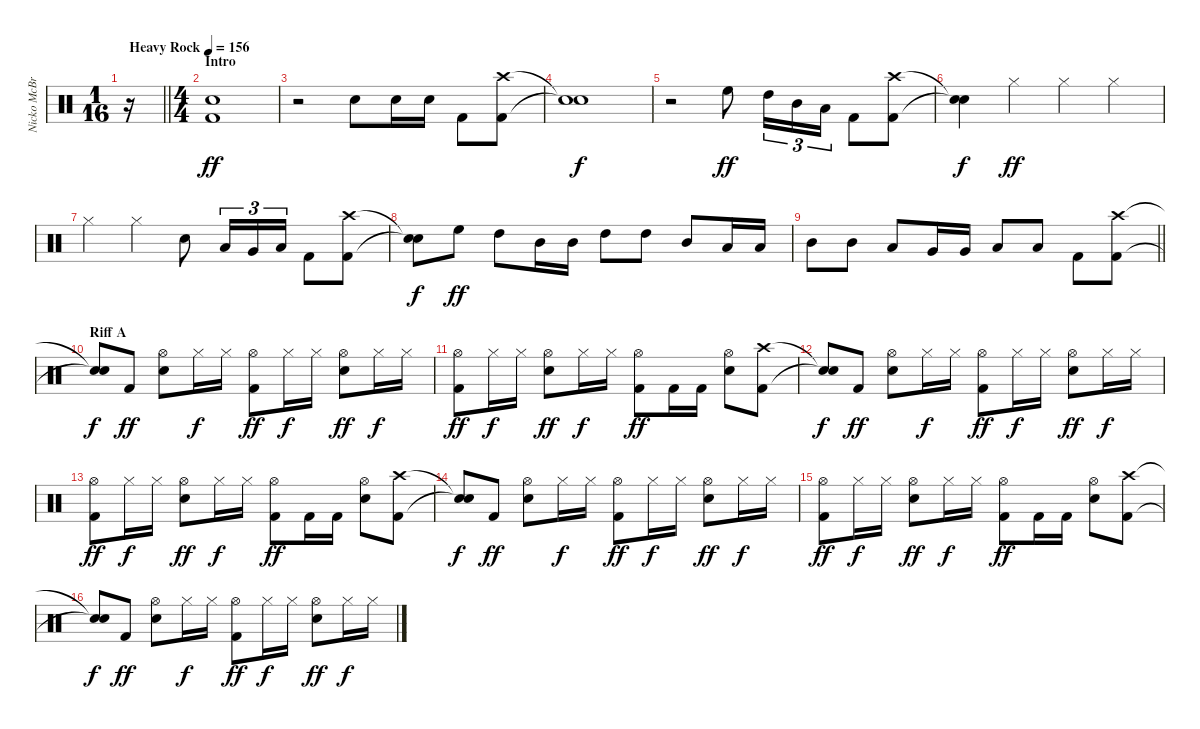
\track ("Nicko McBrain" "Nicko McBr") {instrument percussion}
\staff {score}
\articulation defaults
\ts (1 16)
\tempo (156 "Heavy Rock")
\clef neutral
\barLineRight lightlight
\ks c
r.16{dy ff} |
\ts (4 4)
\section ("" "Intro")
("Kick (hit) 2" "Snare (hit) 2").1 |
r.2 "Snare (hit) 2".8 "Snare (hit) 2".16 "Snare (hit) 2".16 "Kick (hit) 2".8 ("Kick (hit) 2" "Crash high (hit)").8 |
("Snare (hit)"{t} "Snare (hit)"{t}).1{dy f} |
r.2 "High Floor Tom (hit)".8{dy ff} "High Tom (hit)".16{tu (3 2)} "Mid Tom (hit)".16{tu (3 2)} "Low Tom (hit)".16{tu (3 2)} "Kick (hit) 2".8 ("Kick (hit) 2" "Crash high (hit)").8 |
("Snare (hit)"{t} "Snare (hit)"{t}).4{dy f} "Hi-Hat (closed)".4{dy ff} "Hi-Hat (closed)".4 "Hi-Hat (closed)".4 |
"Hi-Hat (closed)".4 "Hi-Hat (closed)".4 "Snare (hit) 2".8 "Low Tom (hit)".16{tu (3 2)} "Very Low Tom (hit)".16{tu (3 2)} "Low Floor Tom (hit)".16{tu (3 2)} "Kick (hit) 2".8 ("Kick (hit) 2" "Crash high (hit)").8 |
("Snare (hit)"{t} "Snare (hit)"{t}).8{dy f} "High Floor Tom (hit)".8{dy ff} "High Tom (hit)".8 "Mid Tom (hit)".16 "Mid Tom (hit)".16 "High Tom (hit)".8 "High Tom (hit)".8 "Mid Tom (hit)".8 "Low Tom (hit)".16 "Low Tom (hit)".16 |
\barLineRight lightlight "Mid Tom (hit)".8 "Mid Tom (hit)".8 "Low Tom (hit)".8 "Very Low Tom (hit)".16 "Very Low Tom (hit)".16 "Low Tom (hit)".8 "Low Tom (hit)".8 "Kick (hit) 2".8
("Kick (hit) 2" "Crash high (hit)").8 |
\section ("" "Riff A")
("Snare (hit)"{t} "Snare (hit)"{t}).8{dy f} "Kick (hit) 2".8{dy ff} ("Snare (hit) 2" "Hi-Hat (open)").8 "Hi-Hat (closed)".16{dy f} "Hi-Hat (closed)".16 ("Kick (hit) 2" "Hi-Hat (open)").8{dy ff} "Hi-Hat (closed)".16{dy f} "Hi-Hat (closed)".16 ("Snare (hit) 2" "Hi-Hat (open)").8{dy ff} "Hi-Hat (closed)".16{dy f} "Hi-Hat (closed)".16 |
("Kick (hit) 2" "Hi-Hat (open)").8{dy ff} "Hi-Hat (closed)".16{dy f} "Hi-Hat (closed)".16 ("Snare (hit) 2" "Hi-Hat (open)").8{dy ff} "Hi-Hat (closed)".16{dy f} "Hi-Hat (closed)".16 ("Kick (hit) 2" "Hi-Hat (open)").8{dy ff} "Kick (hit) 2".16 "Kick (hit) 2".16 ("Snare (hit) 2" "Hi-Hat (open)").8 ("Kick (hit) 2" "Crash high (hit)").8 |
("Snare (hit)"{t} "Snare (hit)"{t}).8{dy f} "Kick (hit) 2".8{dy ff} ("Snare (hit) 2" "Hi-Hat (open)").8 "Hi-Hat (closed)".16{dy f} "Hi-Hat (closed)".16 ("Kick (hit) 2" "Hi-Hat (open)").8{dy ff} "Hi-Hat (closed)".16{dy f} "Hi-Hat (closed)".16 ("Snare (hit) 2" "Hi-Hat (open)").8{dy ff} "Hi-Hat (closed)".16{dy f} "Hi-Hat (closed)".16 |
("Kick (hit) 2" "Hi-Hat (open)").8{dy ff} "Hi-Hat (closed)".16{dy f} "Hi-Hat (closed)".16 ("Snare (hit) 2" "Hi-Hat (open)").8{dy ff} "Hi-Hat (closed)".16{dy f} "Hi-Hat (closed)".16 ("Kick (hit) 2" "Hi-Hat (open)").8{dy ff} "Kick (hit) 2".16 "Kick (hit) 2".16 ("Snare (hit) 2" "Hi-Hat (open)").8 ("Kick (hit) 2" "Crash high (hit)").8 |
("Snare (hit)"{t} "Snare (hit)"{t}).8{dy f} "Kick (hit) 2".8{dy ff} ("Snare (hit) 2" "Hi-Hat (open)").8 "Hi-Hat (closed)".16{dy f} "Hi-Hat (closed)".16 ("Kick (hit) 2" "Hi-Hat (open)").8{dy ff} "Hi-Hat (closed)".16{dy f} "Hi-Hat (closed)".16 ("Snare (hit) 2" "Hi-Hat (open)").8{dy ff} "Hi-Hat (closed)".16{dy f} "Hi-Hat (closed)".16 |
("Kick (hit) 2" "Hi-Hat (open)").8{dy ff} "Hi-Hat (closed)".16{dy f} "Hi-Hat (closed)".16 ("Snare (hit) 2" "Hi-Hat (open)").8{dy ff} "Hi-Hat (closed)".16{dy f} "Hi-Hat (closed)".16 ("Kick (hit) 2" "Hi-Hat (open)").8{dy ff} "Kick (hit) 2".16 "Kick (hit) 2".16 ("Snare (hit) 2" "Hi-Hat (open)").8 ("Kick (hit) 2" "Crash high (hit)").8 |
("Snare (hit)"{t} "Snare (hit)"{t}).8{dy f} "Kick (hit) 2".8{dy ff} ("Snare (hit) 2" "Hi-Hat (open)").8 "Hi-Hat (closed)".16{dy f} "Hi-Hat (closed)".16 ("Kick (hit) 2" "Hi-Hat (open)").8{dy ff} "Hi-Hat (closed)".16{dy f} "Hi-Hat (closed)".16 ("Snare (hit) 2" "Hi-Hat (open)").8{dy ff} "Hi-Hat (closed)".16{dy f} "Hi-Hat (closed)".16
